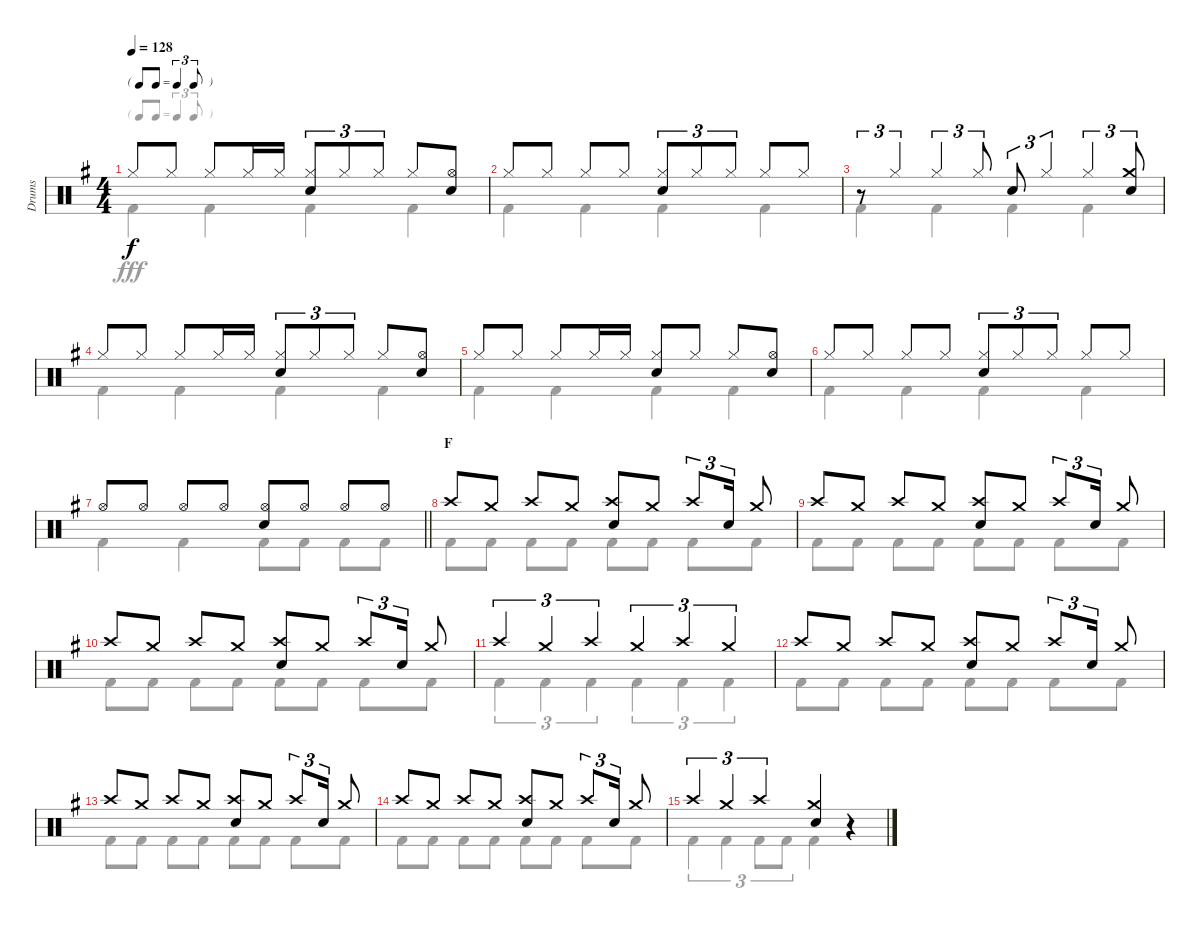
\track ("Drums" "Drums") {instrument percussion}
\staff {score}
\articulation defaults
\voice
\ts (4 4)
\tf triplet8th
\tempo 128
\clef neutral
\ks g "Hi-Hat (closed)".8{dy f} "Hi-Hat (closed)".8 "Hi-Hat (closed)".8 "Hi-Hat (closed)".16 "Hi-Hat (closed)".16
("Hi-Hat (closed)" "Snare (hit) 2").8{tu (3 2)} "Hi-Hat (closed)".8{tu (3 2)} "Hi-Hat (closed)".8{tu (3 2)} "Hi-Hat (closed)".8 ("Hi-Hat (open)" "Snare (hit) 2").8 |
"Hi-Hat (closed)".8 "Hi-Hat (closed)".8 "Hi-Hat (closed)".8 "Hi-Hat (closed)".8 ("Hi-Hat (closed)" "Snare (hit) 2").8{tu (3 2)} "Hi-Hat (closed)".8{tu (3 2)} "Hi-Hat (closed)".8{tu (3 2)} "Hi-Hat (closed)".8 "Hi-Hat (closed)".8 |
r.8{tu (3 2)} "Hi-Hat (closed)".4{tu (3 2)} "Hi-Hat (closed)".4{tu (3 2)} "Hi-Hat (closed)".8{tu (3 2)} "Snare (hit) 2".8{tu (3 2)} "Hi-Hat (closed)".4{tu (3 2)} "Hi-Hat (closed)".4{tu (3 2)} ("Crash medium (hit)" "Snare (hit) 2").8{tu (3 2)} |
"Hi-Hat (closed)".8 "Hi-Hat (closed)".8 "Hi-Hat (closed)".8 "Hi-Hat (closed)".16 "Hi-Hat (closed)".16 ("Hi-Hat (closed)" "Snare (hit) 2").8{tu (3 2)} "Hi-Hat (closed)".8{tu (3 2)} "Hi-Hat (closed)".8{tu (3 2)} "Hi-Hat (closed)".8 ("Hi-Hat (open)" "Snare (hit) 2").8 |
"Hi-Hat (closed)".8 "Hi-Hat (closed)".8 "Hi-Hat (closed)".8 "Hi-Hat (closed)".16 "Hi-Hat (closed)".16 ("Hi-Hat (closed)" "Snare (hit) 2").8 "Hi-Hat (closed)".8 "Hi-Hat (closed)".8 ("Hi-Hat (open)" "Snare (hit) 2").8 |
"Hi-Hat (closed)".8 "Hi-Hat (closed)".8 "Hi-Hat (closed)".8 "Hi-Hat (closed)".8 ("Hi-Hat (closed)" "Snare (hit) 2").8{tu (3 2)} "Hi-Hat (closed)".8{tu (3 2)} "Hi-Hat (closed)".8{tu (3 2)} "Hi-Hat (closed)".8 "Hi-Hat (closed)".8 |
\barLineRight lightlight "Hi-Hat (open)".8 "Hi-Hat (open)".8 "Hi-Hat (open)".8 "Hi-Hat (open)".8
("Hi-Hat (open)" "Snare (hit) 2").8 "Hi-Hat (open)".8 "Hi-Hat (open)".8 "Hi-Hat (open)".8 |
\section ("" "F")
"Crash high (hit)".8 "Crash medium (hit)".8 "Crash high (hit)".8 "Crash medium (hit)".8 ("Crash high (hit)" "Snare (hit) 2").8 "Crash medium (hit)".8 "Crash high (hit)".8{tu (3 2)} "Snare (hit) 2".16{tu (3 2)} "Crash medium (hit)".8 |
"Crash high (hit)".8 "Crash medium (hit)".8 "Crash high (hit)".8 "Crash medium (hit)".8 ("Crash high (hit)" "Snare (hit) 2").8 "Crash medium (hit)".8 "Crash high (hit)".8{tu (3 2)} "Snare (hit) 2".16{tu (3 2)} "Crash medium (hit)".8 |
"Crash high (hit)".8 "Crash medium (hit)".8 "Crash high (hit)".8 "Crash medium (hit)".8 ("Crash high (hit)" "Snare (hit) 2").8 "Crash medium (hit)".8 "Crash high (hit)".8{tu (3 2)} "Snare (hit) 2".16{tu (3 2)} "Crash medium (hit)".8 |
"Crash high (hit)".4{tu (3 2)} "Crash medium (hit)".4{tu (3 2)} "Crash high (hit)".4{tu (3 2)} "Crash medium (hit)".4{tu (3 2)} "Crash high (hit)".4{tu (3 2)} "Crash medium (hit)".4{tu (3 2)} |
"Crash high (hit)".8 "Crash medium (hit)".8 "Crash high (hit)".8 "Crash medium (hit)".8 ("Crash high (hit)" "Snare (hit) 2").8 "Crash medium (hit)".8 "Crash high (hit)".8{tu (3 2)} "Snare (hit) 2".16{tu (3 2)} "Crash medium (hit)".8 |
"Crash high (hit)".8 "Crash medium (hit)".8 "Crash high (hit)".8 "Crash medium (hit)".8 ("Crash high (hit)" "Snare (hit) 2").8 "Crash medium (hit)".8 "Crash high (hit)".8{tu (3 2)} "Snare (hit) 2".16{tu (3 2)} "Crash medium (hit)".8 |
"Crash high (hit)".8 "Crash medium (hit)".8 "Crash high (hit)".8 "Crash medium (hit)".8 ("Crash high (hit)" "Snare (hit) 2").8 "Crash medium (hit)".8 "Crash high (hit)".8{tu (3 2)} "Snare (hit) 2".16{tu (3 2)} "Crash medium (hit)".8 |
"Crash high (hit)".4{tu (3 2)} "Crash medium (hit)".4{tu (3 2)} "Crash high (hit)".4{tu (3 2)} ("Crash medium (hit)" "Snare (hit) 2").4 r.4
\voice
\clef neutral
\ottava regular
\simile none
\ks g "Kick (hit) 2".4{dy fff} "Kick (hit) 2".4 "Kick (hit) 2".4 "Kick (hit) 2".4
|
"Kick (hit) 2".4 "Kick (hit) 2".4 "Kick (hit) 2".4 "Kick (hit) 2".4 |
"Kick (hit) 2".4 "Kick (hit) 2".4 "Kick (hit) 2".4 "Kick (hit) 2".4 |
"Kick (hit) 2".4 "Kick (hit) 2".4 "Kick (hit) 2".4 "Kick (hit) 2".4 |
"Kick (hit) 2".4 "Kick (hit) 2".4 "Kick (hit) 2".4 "Kick (hit) 2".4 |
"Kick (hit) 2".4 "Kick (hit) 2".4 "Kick (hit) 2".4 "Kick (hit) 2".4 |
\barLineRight lightlight "Kick (hit) 2".4 "Kick (hit) 2".4 "Kick (hit) 2".8 "Kick (hit) 2".8 "Kick (hit) 2".8 "Kick (hit) 2".8
|
"Kick (hit) 2".8 "Kick (hit) 2".8 "Kick (hit) 2".8 "Kick (hit) 2".8 "Kick (hit) 2".8 "Kick (hit) 2".8 "Kick (hit) 2".8 "Kick (hit) 2".8 |
"Kick (hit) 2".8 "Kick (hit) 2".8 "Kick (hit) 2".8 "Kick (hit) 2".8 "Kick (hit) 2".8 "Kick (hit) 2".8 "Kick (hit) 2".8 "Kick (hit) 2".8 |
"Kick (hit) 2".8 "Kick (hit) 2".8 "Kick (hit) 2".8 "Kick (hit) 2".8 "Kick (hit) 2".8 "Kick (hit) 2".8 "Kick (hit) 2".8 "Kick (hit) 2".8 |
"Kick (hit) 2".4{tu (3 2)} "Kick (hit) 2".4{tu (3 2)} "Kick (hit) 2".4{tu (3 2)} "Kick (hit) 2".4{tu (3 2)} "Kick (hit) 2".4{tu (3 2)} "Kick (hit) 2".4{tu (3 2)} |
"Kick (hit) 2".8 "Kick (hit) 2".8 "Kick (hit) 2".8 "Kick (hit) 2".8 "Kick (hit) 2".8 "Kick (hit) 2".8 "Kick (hit) 2".8 "Kick (hit) 2".8 |
"Kick (hit) 2".8 "Kick (hit) 2".8 "Kick (hit) 2".8 "Kick (hit) 2".8 "Kick (hit) 2".8 "Kick (hit) 2".8 "Kick (hit) 2".8 "Kick (hit) 2".8 |
"Kick (hit) 2".8 "Kick (hit) 2".8 "Kick (hit) 2".8 "Kick (hit) 2".8 "Kick (hit) 2".8 "Kick (hit) 2".8 "Kick (hit) 2".8 "Kick (hit) 2".8 |
"Kick (hit) 2".4{tu (3 2)} "Kick (hit) 2".4{tu (3 2)} "Kick (hit) 2".8{tu (3 2)} "Kick (hit) 2".8{tu (3 2)} "Kick (hit) 2".4 r.4
